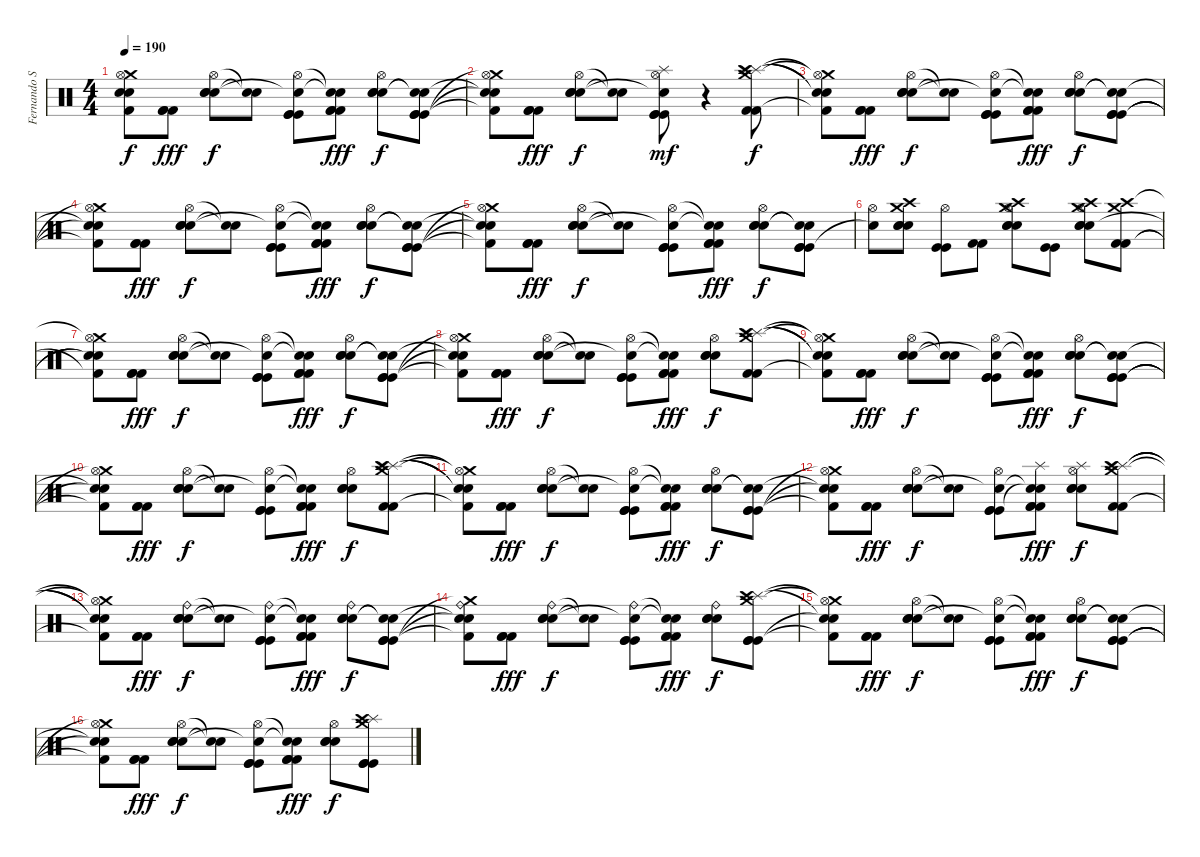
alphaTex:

\track ("Fernando Scarcella" "Fernando S") {instrument percussion}
\staff {score}
\articulation defaults
\ts (4 4)
\tempo 190
\clef neutral
\ks c
("Crash medium (hit)"{t} "Hi-Hat (open)" "Snare (hit)"{t} "Snare (hit)"{t} "Kick (hit) 2"{t}).8{dy f} ("Kick (hit) 2" "Kick (hit) 2" "Kick (hit) 2").8{dy fff} ("Hi-Hat (open)" "Electric Snare (hit)" "Electric Snare (hit)" "Electric Snare (hit)").8{dy f} ("Snare (hit)"{t} "Snare (hit)"{t}).8 ("Kick (hit)" "Hi-Hat (open)" "Snare (hit)"{t} "Kick (hit)" "Kick (hit)").8 ("Kick (hit) 2" "Snare (hit)"{t} "Snare (hit)"{t} "Kick (hit) 2" "Kick (hit) 2").8{dy fff} ("Hi-Hat (open)" "Electric Snare (hit)" "Electric Snare (hit)" "Electric Snare (hit)").8{dy f} ("Kick (hit)" "Snare (hit)"{t} "Snare (hit)"{t} "Kick (hit)" "Kick (hit)").8 |
("Crash medium (hit)"{t} "Hi-Hat (open)" "Snare (hit)"{t} "Snare (hit)"{t} "Kick (hit) 2"{t}).8 ("Kick (hit) 2" "Kick (hit) 2" "Kick (hit) 2").8{dy fff} ("Hi-Hat (open)" "Electric Snare (hit)" "Electric Snare (hit)" "Electric Snare (hit)").8{dy f} ("Snare (hit)"{t} "Snare (hit)"{t}).8 ("Kick (hit)" "Splash (hit)" "Hi-Hat (open)" "Snare (hit)"{t} "Kick (hit)" "Kick (hit)").8{dy mf} r.4 ("Crash medium (hit)" "Splash (hit)" "Crash high (hit)" "Splash (hit)" "Kick (hit) 2" "Kick (hit) 2").8{dy f} |
("Crash medium (hit)"{t} "Hi-Hat (open)"{t} "Snare (hit)"{t} "Snare (hit)"{t} "Kick (hit) 2"{t}).8 ("Kick (hit) 2" "Kick (hit) 2" "Kick (hit) 2").8{dy fff} ("Hi-Hat (open)" "Electric Snare (hit)" "Electric Snare (hit)" "Electric Snare (hit)").8{dy f} ("Snare (hit)"{t} "Snare (hit)"{t}).8 ("Kick (hit)" "Hi-Hat (open)" "Snare (hit)"{t} "Kick (hit)" "Kick (hit)").8 ("Kick (hit) 2" "Snare (hit)"{t} "Snare (hit)"{t} "Kick (hit) 2" "Kick (hit) 2").8{dy fff} ("Hi-Hat (open)" "Electric Snare (hit)" "Electric Snare (hit)" "Electric Snare (hit)").8{dy f} ("Kick (hit)" "Snare (hit)"{t} "Snare (hit)"{t} "Kick (hit)" "Kick (hit)").8 |
("Crash medium (hit)"{t} "Hi-Hat (open)" "Snare (hit)"{t} "Snare (hit)"{t} "Kick (hit) 2"{t}).8 ("Kick (hit) 2" "Kick (hit) 2" "Kick (hit) 2").8{dy fff} ("Hi-Hat (open)" "Electric Snare (hit)" "Electric Snare (hit)" "Electric Snare (hit)").8{dy f} ("Snare (hit)"{t} "Snare (hit)"{t}).8 ("Kick (hit)" "Hi-Hat (open)" "Snare (hit)"{t} "Kick (hit)" "Kick (hit)").8 ("Kick (hit) 2" "Snare (hit)"{t} "Snare (hit)"{t} "Kick (hit) 2" "Kick (hit) 2").8{dy fff} ("Hi-Hat (open)" "Electric Snare (hit)" "Electric Snare (hit)" "Electric Snare (hit)").8{dy f} ("Kick (hit)" "Snare (hit)"{t} "Snare (hit)"{t} "Kick (hit)" "Kick (hit)").8 |
("Crash medium (hit)"{t} "Hi-Hat (open)" "Snare (hit)"{t} "Snare (hit)"{t} "Kick (hit) 2"{t}).8 ("Kick (hit) 2" "Kick (hit) 2" "Kick (hit) 2").8{dy fff} ("Hi-Hat (open)" "Electric Snare (hit)" "Electric Snare (hit)" "Electric Snare (hit)").8{dy f} ("Snare (hit)"{t} "Snare (hit)"{t}).8 ("Kick (hit)" "Hi-Hat (open)" "Snare (hit)"{t} "Kick (hit)" "Kick (hit)").8 ("Kick (hit) 2" "Snare (hit)"{t} "Snare (hit)"{t} "Kick (hit) 2" "Kick (hit) 2").8{dy fff} ("Hi-Hat (open)" "Electric Snare (hit)" "Electric Snare (hit)" "Electric Snare (hit)").8{dy f} ("Kick (hit)" "Snare (hit)"{t} "Snare (hit)"{t} "Kick (hit)" "Kick (hit)").8 |
("Electric Snare (hit)"{t} "Hi-Hat (open)").8 ("Crash high (hit)" "Crash medium (hit)" "Electric Snare (hit)" "Electric Snare (hit)" "Electric Snare (hit)").8 ("Hi-Hat (open)" "Kick (hit)" "Kick (hit)").8 ("Kick (hit) 2" "Kick (hit) 2").8 ("Crash high (hit)" "Hi-Hat (open)" "Crash medium (hit)" "Electric Snare (hit)" "Electric Snare (hit)" "Electric Snare (hit)").8 ("Kick (hit)" "Kick (hit)").8 ("Crash high (hit)" "Hi-Hat (open)" "Crash medium (hit)" "Electric Snare (hit)" "Electric Snare (hit)" "Electric Snare (hit)").8 ("Crash high (hit)" "Crash medium (hit)" "Kick (hit) 2" "Kick (hit) 2").8 |
("Crash medium (hit)"{t} "Hi-Hat (open)" "Snare (hit)"{t} "Snare (hit)"{t} "Kick (hit) 2"{t}).8 ("Kick (hit) 2" "Kick (hit) 2" "Kick (hit) 2").8{dy fff} ("Hi-Hat (open)" "Electric Snare (hit)" "Electric Snare (hit)" "Electric Snare (hit)").8{dy f} ("Snare (hit)"{t} "Snare (hit)"{t}).8 ("Kick (hit)" "Hi-Hat (open)" "Snare (hit)"{t} "Kick (hit)" "Kick (hit)").8 ("Kick (hit) 2" "Snare (hit)"{t} "Snare (hit)"{t} "Kick (hit) 2" "Kick (hit) 2").8{dy fff} ("Hi-Hat (open)" "Electric Snare (hit)" "Electric Snare (hit)" "Electric Snare (hit)").8{dy f} ("Kick (hit)" "Snare (hit)"{t} "Snare (hit)"{t} "Kick (hit)" "Kick (hit)").8 |
("Crash medium (hit)"{t} "Hi-Hat (open)" "Snare (hit)"{t} "Snare (hit)"{t} "Kick (hit) 2"{t}).8 ("Kick (hit) 2" "Kick (hit) 2" "Kick (hit) 2").8{dy fff} ("Hi-Hat (open)" "Electric Snare (hit)" "Electric Snare (hit)" "Electric Snare (hit)").8{dy f} ("Snare (hit)"{t} "Snare (hit)"{t}).8 ("Kick (hit)" "Hi-Hat (open)" "Snare (hit)"{t} "Kick (hit)" "Kick (hit)").8 ("Kick (hit) 2" "Snare (hit)"{t} "Snare (hit)"{t} "Kick (hit) 2" "Kick (hit) 2").8{dy fff} ("Hi-Hat (open)" "Electric Snare (hit)" "Electric Snare (hit)" "Electric Snare (hit)").8{dy f} ("Splash (hit)" "Crash medium (hit)" "Splash (hit)" "Crash high (hit)" "Kick (hit) 2" "Kick (hit) 2").8 |
("Crash medium (hit)"{t} "Hi-Hat (open)"{t} "Snare (hit)"{t} "Snare (hit)"{t} "Kick (hit) 2"{t}).8 ("Kick (hit) 2" "Kick (hit) 2" "Kick (hit) 2").8{dy fff} ("Hi-Hat (open)" "Electric Snare (hit)" "Electric Snare (hit)" "Electric Snare (hit)").8{dy f} ("Snare (hit)"{t} "Snare (hit)"{t}).8 ("Kick (hit)" "Hi-Hat (open)" "Snare (hit)"{t} "Kick (hit)" "Kick (hit)").8 ("Kick (hit) 2" "Snare (hit)"{t} "Snare (hit)"{t} "Kick (hit) 2" "Kick (hit) 2").8{dy fff} ("Hi-Hat (open)" "Electric Snare (hit)" "Electric Snare (hit)" "Electric Snare (hit)").8{dy f} ("Kick (hit)" "Snare (hit)"{t} "Snare (hit)"{t} "Kick (hit)" "Kick (hit)").8 |
("Crash medium (hit)"{t} "Hi-Hat (open)" "Snare (hit)"{t} "Snare (hit)"{t} "Kick (hit) 2"{t}).8 ("Kick (hit) 2" "Kick (hit) 2" "Kick (hit) 2").8{dy fff} ("Hi-Hat (open)" "Electric Snare (hit)" "Electric Snare (hit)" "Electric Snare (hit)").8{dy f} ("Snare (hit)"{t} "Snare (hit)"{t}).8 ("Kick (hit)" "Hi-Hat (open)" "Snare (hit)"{t} "Kick (hit)" "Kick (hit)").8 ("Kick (hit) 2" "Snare (hit)"{t} "Snare (hit)"{t} "Kick (hit) 2" "Kick (hit) 2").8{dy fff} ("Hi-Hat (open)" "Electric Snare (hit)" "Electric Snare (hit)" "Electric Snare (hit)").8{dy f} ("Splash (hit)" "Crash medium (hit)" "Splash (hit)" "Crash high (hit)" "Kick (hit) 2" "Kick (hit) 2").8 |
("Crash medium (hit)"{t} "Hi-Hat (open)"{t} "Snare (hit)"{t} "Snare (hit)"{t} "Kick (hit) 2"{t}).8 ("Kick (hit) 2" "Kick (hit) 2" "Kick (hit) 2").8{dy fff} ("Hi-Hat (open)" "Electric Snare (hit)" "Electric Snare (hit)" "Electric Snare (hit)").8{dy f} ("Snare (hit)"{t} "Snare (hit)"{t}).8 ("Kick (hit)" "Hi-Hat (open)" "Snare (hit)"{t} "Kick (hit)" "Kick (hit)").8 ("Kick (hit) 2" "Snare (hit)"{t} "Snare (hit)"{t} "Kick (hit) 2" "Kick (hit) 2").8{dy fff} ("Hi-Hat (open)" "Electric Snare (hit)" "Electric Snare (hit)" "Electric Snare (hit)").8{dy f} ("Kick (hit)" "Snare (hit)"{t} "Snare (hit)"{t} "Kick (hit)" "Kick (hit)").8 |
("Crash medium (hit)"{t} "Hi-Hat (open)" "Snare (hit)"{t} "Snare (hit)"{t} "Kick (hit) 2"{t}).8 ("Kick (hit) 2" "Kick (hit) 2" "Kick (hit) 2").8{dy fff} ("Hi-Hat (open)" "Electric Snare (hit)" "Electric Snare (hit)" "Electric Snare (hit)").8{dy f} ("Snare (hit)"{t} "Snare (hit)"{t}).8 ("Kick (hit)" "Hi-Hat (open)" "Snare (hit)"{t} "Kick (hit)" "Kick (hit)").8 ("Kick (hit) 2" "Splash (hit)" "Snare (hit)"{t} "Snare (hit)"{t} "Kick (hit) 2" "Kick (hit) 2").8{dy fff} ("Splash (hit)" "Hi-Hat (open)" "Electric Snare (hit)" "Electric Snare (hit)" "Electric Snare (hit)").8{dy f} ("Splash (hit)" "Crash medium (hit)" "Splash (hit)" "Crash high (hit)" "Kick (hit) 2" "Kick (hit) 2").8 |
("Crash medium (hit)"{t} "Hi-Hat (open)"{t} "Snare (hit)"{t} "Snare (hit)"{t} "Kick (hit) 2"{t}).8 ("Kick (hit) 2" "Kick (hit) 2" "Kick (hit) 2").8{dy fff} ("Ride (bell)" "Electric Snare (hit)" "Electric Snare (hit)" "Electric Snare (hit)").8{dy f} ("Snare (hit)"{t} "Snare (hit)"{t}).8 ("Kick (hit)" "Ride (bell)" "Snare (hit)"{t} "Kick (hit)" "Kick (hit)").8 ("Kick (hit) 2" "Snare (hit)"{t} "Snare (hit)"{t} "Kick (hit) 2" "Kick (hit) 2").8{dy fff} ("Ride (bell)" "Electric Snare (hit)" "Electric Snare (hit)" "Electric Snare (hit)").8{dy f} ("Kick (hit)" "Snare (hit)"{t} "Snare (hit)"{t} "Kick (hit)" "Kick (hit)").8 |
("Crash medium (hit)"{t} "Ride (bell)" "Snare (hit)"{t} "Snare (hit)"{t} "Kick (hit) 2"{t}).8 ("Kick (hit) 2" "Kick (hit) 2" "Kick (hit) 2").8{dy fff} ("Ride (bell)" "Electric Snare (hit)" "Electric Snare (hit)" "Electric Snare (hit)").8{dy f} ("Snare (hit)"{t} "Snare (hit)"{t}).8 ("Kick (hit)" "Ride (bell)" "Snare (hit)"{t} "Kick (hit)" "Kick (hit)").8 ("Kick (hit) 2" "Snare (hit)"{t} "Snare (hit)"{t} "Kick (hit) 2" "Kick (hit) 2").8{dy fff} ("Ride (bell)" "Electric Snare (hit)" "Electric Snare (hit)" "Electric Snare (hit)").8{dy f} ("Crash medium (hit)" "Splash (hit)" "Kick (hit)" "Crash high (hit)" "Kick (hit)" "Kick (hit)").8 |
("Crash medium (hit)"{t} "Hi-Hat (open)"{t} "Snare (hit)"{t} "Snare (hit)"{t} "Kick (hit) 2"{t}).8 ("Kick (hit) 2" "Kick (hit) 2" "Kick (hit) 2").8{dy fff} ("Hi-Hat (open)" "Electric Snare (hit)" "Electric Snare (hit)" "Electric Snare (hit)").8{dy f} ("Snare (hit)"{t} "Snare (hit)"{t}).8 ("Kick (hit)" "Hi-Hat (open)" "Snare (hit)"{t} "Kick (hit)" "Kick (hit)").8 ("Kick (hit) 2" "Snare (hit)"{t} "Snare (hit)"{t} "Kick (hit) 2" "Kick (hit) 2").8{dy fff} ("Hi-Hat (open)" "Electric Snare (hit)" "Electric Snare (hit)" "Electric Snare (hit)").8{dy f} ("Kick (hit)" "Snare (hit)"{t} "Snare (hit)"{t} "Kick (hit)" "Kick (hit)").8 |
("Crash medium (hit)"{t} "Hi-Hat (open)" "Snare (hit)"{t} "Snare (hit)"{t} "Kick (hit) 2"{t}).8 ("Kick (hit) 2" "Kick (hit) 2" "Kick (hit) 2").8{dy fff} ("Hi-Hat (open)" "Electric Snare (hit)" "Electric Snare (hit)" "Electric Snare (hit)").8{dy f} ("Snare (hit)"{t} "Snare (hit)"{t}).8 ("Kick (hit)" "Hi-Hat (open)" "Snare (hit)"{t} "Kick (hit)" "Kick (hit)").8 ("Kick (hit) 2" "Snare (hit)"{t} "Snare (hit)"{t} "Kick (hit) 2" "Kick (hit) 2").8{dy fff} ("Hi-Hat (open)" "Electric Snare (hit)" "Electric Snare (hit)" "Electric Snare (hit)").8{dy f} ("Crash medium (hit)" "Splash (hit)" "Crash high (hit)" "Kick (hit)" "Kick (hit)" "Kick (hit)").8
